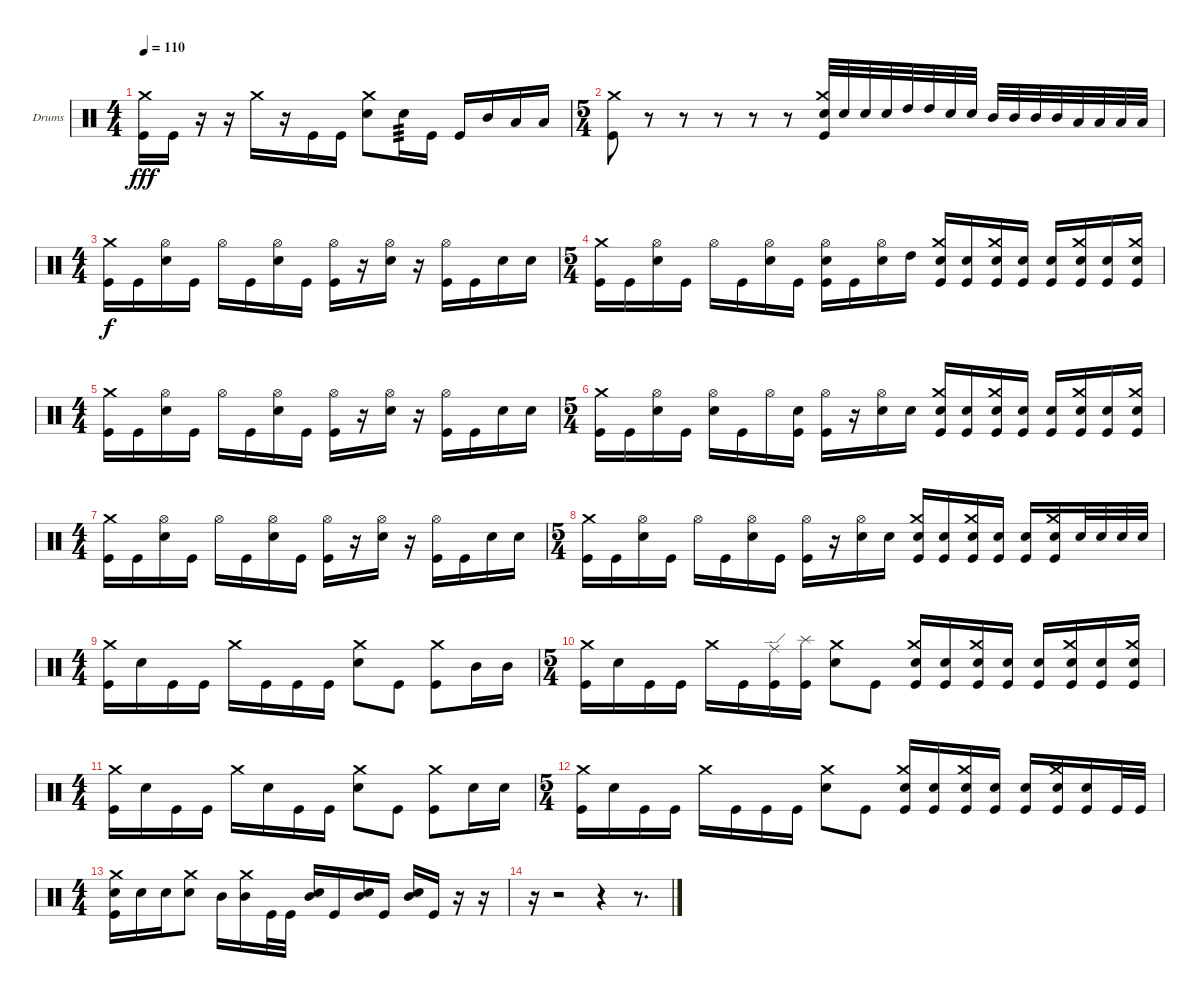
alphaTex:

\defaultSystemsLayout 4
\bracketExtendMode groupsimilarinstruments
\firstSystemTrackNameOrientation horizontal
\otherSystemsTrackNameOrientation horizontal
\track ("Nikita Korzhov" "Drums") {instrument percussion}
\staff {score}
\articulation defaults
\ts (4 4)
\tempo 110
\clef neutral
\scale
0.218391
\ks c
("Kick (hit)" "Crash medium (hit)").16{dy fff} "Kick (hit)".16 r.16 r.16 "Crash medium (hit)".16 r.16 "Kick (hit)".16 "Kick (hit)".16 ("Snare (hit) 2" "Crash medium (hit)").8 "Snare (hit) 2".16{tp 3} "Kick (hit)".16 "Kick (hit)".16 "Mid Tom (hit)".16 "Low Tom (hit)".16 "Low Tom (hit)".16 |
\ts (5 4)
\scale
0.390805 ("Kick (hit)" "Crash medium (hit)").8 r.8 r.8 r.8 r.8 r.8 ("Snare (hit) 2" "Crash medium (hit)" "Kick (hit)").32 "Snare (hit) 2".32 "Snare (hit) 2".32 "Snare (hit) 2".32 "High Tom (hit)".32 "High Tom (hit)".32 "Snare (hit) 2".32 "Snare (hit) 2".32 "Mid Tom (hit)".32 "Mid Tom (hit)".32 "Mid Tom (hit)".32 "Mid Tom (hit)".32 "Low Tom (hit)".32 "Low Tom (hit)".32 "Low Tom (hit)".32 "Low Tom (hit)".32 |
\ts (4 4)
\scale
0.390805 ("Kick (hit)" "Crash medium (hit)").16{dy f} "Kick (hit)".16 ("Snare (hit) 2" "Hi-Hat (open)").16 "Kick (hit)".16 "Hi-Hat (open)".16 "Kick (hit)".16 ("Snare (hit) 2" "Hi-Hat (open)").16 "Kick (hit)".16 ("Kick (hit)" "Hi-Hat (open)").16 r.16 ("Snare (hit) 2" "Hi-Hat (open)").16 r.16 ("Kick (hit)" "Hi-Hat (open)").16 "Kick (hit)".16 "Snare (hit) 2".16 "Snare (hit) 2".16 |
\ts (5 4)
\scale
0.333333 ("Kick (hit)" "Crash medium (hit)").16 "Kick (hit)".16 ("Snare (hit) 2" "Hi-Hat (open)").16 "Kick (hit)".16 "Hi-Hat (open)".16 "Kick (hit)".16 ("Snare (hit) 2" "Hi-Hat (open)").16 "Kick (hit)".16 ("Kick (hit)" "Hi-Hat (open)" "Snare (hit) 2").16 "Kick (hit)".16 ("Snare (hit) 2" "Hi-Hat (open)").16 "High Tom (hit)".16 ("Snare (hit) 2" "Kick (hit)" "Crash medium (hit)").16 ("Snare (hit) 2" "Kick (hit)").16 ("Snare (hit) 2" "Kick (hit)" "Crash medium (hit)").16 ("Snare (hit) 2" "Kick (hit)").16 ("Snare (hit) 2" "Kick (hit)").16 ("Snare (hit) 2" "Kick (hit)" "Crash medium (hit)").16 ("Snare (hit) 2" "Kick (hit)").16 ("Snare (hit) 2" "Kick (hit)" "Crash medium (hit)").16 |
\ts (4 4)
\scale
0.333333 ("Kick (hit)" "Crash medium (hit)").16 "Kick (hit)".16 ("Snare (hit) 2" "Hi-Hat (open)").16 "Kick (hit)".16 "Hi-Hat (open)".16 "Kick (hit)".16 ("Snare (hit) 2" "Hi-Hat (open)").16 "Kick (hit)".16 ("Kick (hit)" "Hi-Hat (open)").16 r.16 ("Snare (hit) 2" "Hi-Hat (open)").16 r.16 ("Kick (hit)" "Hi-Hat (open)").16 "Kick (hit)".16 "Snare (hit) 2".16 "Snare (hit) 2".16 |
\ts (5 4)
\scale
0.333333 ("Kick (hit)" "Crash medium (hit)").16 "Kick (hit)".16 ("Snare (hit) 2" "Hi-Hat (open)").16 "Kick (hit)".16 ("Hi-Hat (open)" "Snare (hit) 2").16 "Kick (hit)".16 "Hi-Hat (open)".16 ("Kick (hit)" "Snare (hit) 2").16 ("Kick (hit)" "Hi-Hat (open)").16 r.16 ("Snare (hit) 2" "Hi-Hat (open)").16 "Snare (hit) 2".16 ("Snare (hit) 2" "Kick (hit)" "Crash medium (hit)").16 ("Snare (hit) 2" "Kick (hit)").16 ("Snare (hit) 2" "Kick (hit)" "Crash medium (hit)").16 ("Snare (hit) 2" "Kick (hit)").16 ("Snare (hit) 2" "Kick (hit)").16 ("Snare (hit) 2" "Kick (hit)" "Crash medium (hit)").16 ("Snare (hit) 2" "Kick (hit)").16 ("Snare (hit) 2" "Kick (hit)" "Crash medium (hit)").16 |
\ts (4 4)
\scale
0.333333 ("Kick (hit)" "Crash medium (hit)").16 "Kick (hit)".16 ("Snare (hit) 2" "Hi-Hat (open)").16 "Kick (hit)".16 "Hi-Hat (open)".16 "Kick (hit)".16 ("Snare (hit) 2" "Hi-Hat (open)").16 "Kick (hit)".16 ("Kick (hit)" "Hi-Hat (open)").16 r.16 ("Snare (hit) 2" "Hi-Hat (open)").16 r.16 ("Kick (hit)" "Hi-Hat (open)").16 "Kick (hit)".16 "Snare (hit) 2".16 "Snare (hit) 2".16 |
\ts (5 4)
\scale
0.333333 ("Kick (hit)" "Crash medium (hit)").16 "Kick (hit)".16 ("Snare (hit) 2" "Hi-Hat (open)").16 "Kick (hit)".16 "Hi-Hat (open)".16 "Kick (hit)".16 ("Snare (hit) 2" "Hi-Hat (open)").16 "Kick (hit)".16 ("Kick (hit)" "Hi-Hat (open)").16 r.16 ("Snare (hit) 2" "Hi-Hat (open)").16 "Snare (hit) 2".16 ("Snare (hit) 2" "Kick (hit)" "Crash medium (hit)").16 ("Snare (hit) 2" "Kick (hit)").16 ("Snare (hit) 2" "Kick (hit)" "Crash medium (hit)").16 ("Snare (hit) 2" "Kick (hit)").16 ("Snare (hit) 2" "Kick (hit)").16 ("Snare (hit) 2" "Kick (hit)" "Crash medium (hit)").16 "Snare (hit) 2".32 "Snare (hit) 2".32 "Snare (hit) 2".32 "Snare (hit) 2".32 |
\ts (4 4)
\scale
0.333333 ("Kick (hit)" "Crash medium (hit)").16 "Snare (hit) 2".16 "Kick (hit)".16 "Kick (hit)".16 "Crash medium (hit)".16 "Kick (hit)".16 "Kick (hit)".16 "Kick (hit)".16 ("Snare (hit) 2" "Crash medium (hit)").8 "Kick (hit)".8 ("Kick (hit)" "Crash medium (hit)").8 "Mid Tom (hit)".16 "Mid Tom (hit)".16 |
\ts (5 4)
\scale
0.333333 ("Kick (hit)" "Crash medium (hit)").16 "Snare (hit) 2".16 "Kick (hit)".16 "Kick (hit)".16 "Crash medium (hit)".16 "Kick (hit)".16 ("Kick (hit)" "Ride (edge)").16 ("Kick (hit)" "Splash (hit)").16 ("Snare (hit) 2" "Crash medium (hit)").8 "Kick (hit)".8 ("Snare (hit) 2" "Kick (hit)" "Crash medium (hit)").16 ("Snare (hit) 2" "Kick (hit)").16 ("Snare (hit) 2" "Kick (hit)" "Crash medium (hit)").16 ("Snare (hit) 2" "Kick (hit)").16 ("Snare (hit) 2" "Kick (hit)").16 ("Snare (hit) 2" "Kick (hit)" "Crash medium (hit)").16 ("Snare (hit) 2" "Kick (hit)").16 ("Snare (hit) 2" "Kick (hit)" "Crash medium (hit)").16 |
\ts (4 4)
\scale
0.333333 ("Kick (hit)" "Crash medium (hit)").16 "Snare (hit) 2".16 "Kick (hit)".16 "Kick (hit)".16 "Crash medium (hit)".16 "Snare (hit) 2".16 "Kick (hit)".16 "Kick (hit)".16 ("Snare (hit) 2" "Crash medium (hit)").8 "Kick (hit)".8 ("Kick (hit)" "Crash medium (hit)").8 "Snare (hit) 2".16 "Snare (hit) 2".16 |
\ts (5 4)
\scale
0.333333 ("Kick (hit)" "Crash medium (hit)").16 "Snare (hit) 2".16 "Kick (hit)".16 "Kick (hit)".16 "Crash medium (hit)".16 "Kick (hit)".16 "Kick (hit)".16 "Kick (hit)".16 ("Snare (hit) 2" "Crash medium (hit)").8 "Kick (hit)".8 ("Snare (hit) 2" "Kick (hit)" "Crash medium (hit)").16 ("Snare (hit) 2" "Kick (hit)").16 ("Snare (hit) 2" "Kick (hit)" "Crash medium (hit)").16 ("Snare (hit) 2" "Kick (hit)").16 ("Snare (hit) 2" "Kick (hit)").16 ("Snare (hit) 2" "Kick (hit)" "Crash medium (hit)").16 ("Snare (hit) 2" "Kick (hit)").16 "Kick (hit)".32 "Kick (hit)".32 |
\ts (4 4)
("Snare (hit) 2" "Crash medium (hit)" "Kick (hit)").16 "Snare (hit) 2".16 "Snare (hit) 2".16 ("Snare (hit) 2" "Crash medium (hit)").8 "Mid Tom (hit)".16 ("Mid Tom (hit)" "Crash medium (hit)").16 "Kick (hit)".32 "Kick (hit)".32 ("Snare (hit) 2" "Mid Tom (hit)").16 "Kick (hit)".16 ("Snare (hit) 2" "Mid Tom (hit)").16 "Kick (hit)".16 ("Snare (hit) 2" "Mid Tom (hit)").16 "Kick (hit)".16 r.16 r.16 |
r.16 r.2 r.4 r.8{d}
